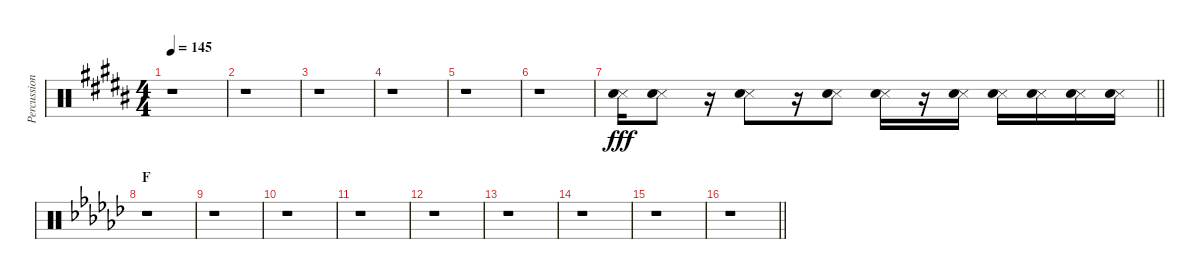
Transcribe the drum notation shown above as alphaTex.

\track ("Percussion" "Percussion") {instrument percussion}
\staff {score}
\articulation defaults
\ts (4 4)
\tempo 145
\clef neutral
\ks b
r.1{dy fff} |
r.1 |
r.1 |
r.1 |
r.1 |
r.1 |
\barLineRight lightlight
("Snare (side stick) 3" "Hand Clap (hit)").16 ("Snare (side stick) 3" "Hand Clap (hit)").8 r.16 ("Snare (side stick) 3" "Hand Clap (hit)").8 r.16 ("Snare (side stick) 3" "Hand Clap (hit)").8 ("Snare (side stick) 3" "Hand Clap (hit)").16 r.16 ("Snare (side stick) 3" "Hand Clap (hit)").16 ("Snare (side stick) 3" "Hand Clap (hit)").16 ("Snare (side stick) 3" "Hand Clap (hit)").16 ("Snare (side stick) 3" "Hand Clap (hit)").16 ("Snare (side stick) 3" "Hand Clap (hit)").16 |
\section ("" "F")
\ks gb
r.1 |
r.1 |
r.1 |
r.1 |
r.1 |
r.1 |
r.1 |
r.1 |
\barLineRight lightlight
r.1
